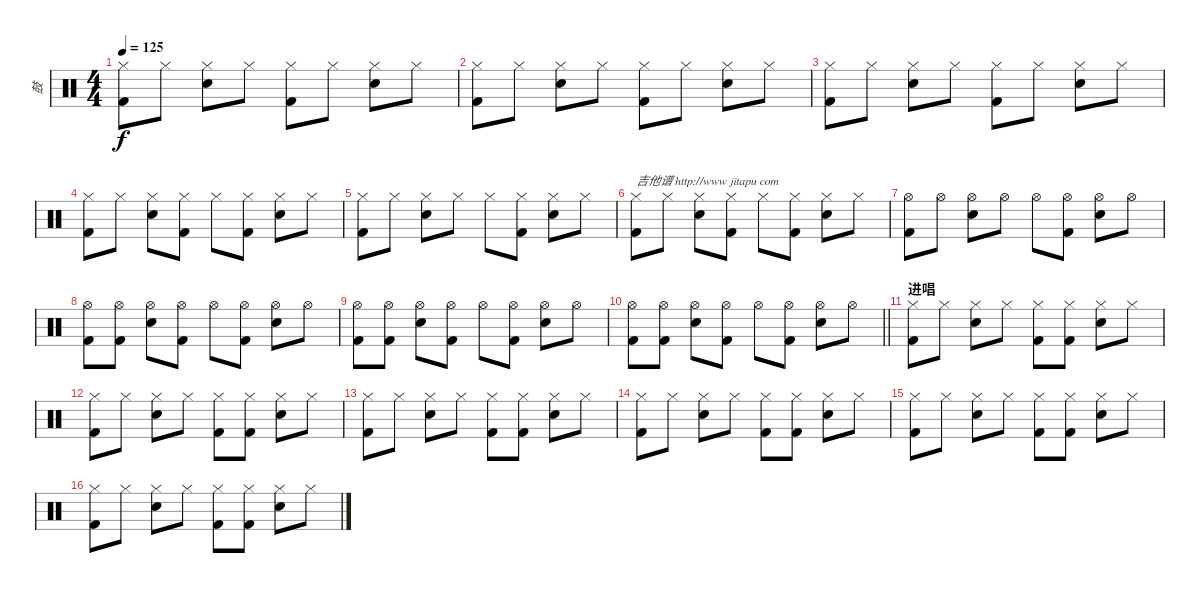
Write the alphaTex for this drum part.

\track ("鼓" "鼓") {instrument percussion}
\staff {score}
\articulation defaults
\ts (4 4)
\tempo 125
\clef neutral
\ks c
("Hi-Hat (closed)" "Kick (hit) 2").8{dy f} "Hi-Hat (closed)".8 ("Hi-Hat (closed)" "Snare (hit) 2").8 "Hi-Hat (closed)".8 ("Hi-Hat (closed)" "Kick (hit) 2").8 "Hi-Hat (closed)".8 ("Hi-Hat (closed)" "Snare (hit) 2").8 "Hi-Hat (closed)".8 |
("Hi-Hat (closed)" "Kick (hit) 2").8 "Hi-Hat (closed)".8 ("Hi-Hat (closed)" "Snare (hit) 2").8 "Hi-Hat (closed)".8 ("Hi-Hat (closed)" "Kick (hit) 2").8 "Hi-Hat (closed)".8 ("Hi-Hat (closed)" "Snare (hit) 2").8 "Hi-Hat (closed)".8 |
("Hi-Hat (closed)" "Kick (hit) 2").8 "Hi-Hat (closed)".8 ("Hi-Hat (closed)" "Snare (hit) 2").8 "Hi-Hat (closed)".8 ("Hi-Hat (closed)" "Kick (hit) 2").8 "Hi-Hat (closed)".8 ("Hi-Hat (closed)" "Snare (hit) 2").8 "Hi-Hat (closed)".8 |
("Hi-Hat (closed)" "Kick (hit) 2").8 "Hi-Hat (closed)".8 ("Hi-Hat (closed)" "Snare (hit) 2").8 ("Hi-Hat (closed)" "Kick (hit) 2").8 "Hi-Hat (closed)".8 ("Hi-Hat (closed)" "Kick (hit) 2").8 ("Hi-Hat (closed)" "Snare (hit) 2").8 "Hi-Hat (closed)".8 |
("Hi-Hat (closed)" "Kick (hit) 2").8 "Hi-Hat (closed)".8 ("Hi-Hat (closed)" "Snare (hit) 2").8 "Hi-Hat (closed)".8 "Hi-Hat (closed)".8 ("Hi-Hat (closed)" "Kick (hit) 2").8 ("Hi-Hat (closed)" "Snare (hit) 2").8 "Hi-Hat (closed)".8 |
("Hi-Hat (closed)" "Kick (hit) 2").8{txt "吉他谱 http://www jitapu com"} "Hi-Hat (closed)".8 ("Hi-Hat (closed)" "Snare (hit) 2").8 ("Hi-Hat (closed)" "Kick (hit) 2").8 "Hi-Hat (closed)".8 ("Hi-Hat (closed)" "Kick (hit) 2").8 ("Hi-Hat (closed)" "Snare (hit) 2").8 "Hi-Hat (closed)".8 |
("Hi-Hat (open)" "Kick (hit) 2").8 "Hi-Hat (open)".8 ("Hi-Hat (open)" "Snare (hit) 2").8 "Hi-Hat (open)".8 "Hi-Hat (open)".8 ("Hi-Hat (open)" "Kick (hit) 2").8 ("Hi-Hat (open)" "Snare (hit) 2").8 "Hi-Hat (open)".8 |
("Hi-Hat (open)" "Kick (hit) 2").8 ("Hi-Hat (open)" "Kick (hit) 2").8 ("Hi-Hat (open)" "Snare (hit) 2").8 ("Hi-Hat (open)" "Kick (hit) 2").8 "Hi-Hat (open)".8 ("Hi-Hat (open)" "Kick (hit) 2").8 ("Hi-Hat (open)" "Snare (hit) 2").8 "Hi-Hat (open)".8 |
("Hi-Hat (open)" "Kick (hit) 2").8 ("Hi-Hat (open)" "Kick (hit) 2").8 ("Hi-Hat (open)" "Snare (hit) 2").8 ("Hi-Hat (open)" "Kick (hit) 2").8 "Hi-Hat (open)".8 ("Hi-Hat (open)" "Kick (hit) 2").8 ("Hi-Hat (open)" "Snare (hit) 2").8 "Hi-Hat (open)".8 |
\barLineRight lightlight
("Hi-Hat (open)" "Kick (hit) 2").8 ("Hi-Hat (open)" "Kick (hit) 2").8 ("Hi-Hat (open)" "Snare (hit) 2").8 ("Hi-Hat (open)" "Kick (hit) 2").8 "Hi-Hat (open)".8 ("Hi-Hat (open)" "Kick (hit) 2").8 ("Hi-Hat (open)" "Snare (hit) 2").8 "Hi-Hat (open)".8 |
\section ("" "进唱")
("Hi-Hat (closed)" "Kick (hit) 2").8 "Hi-Hat (closed)".8 ("Hi-Hat (closed)" "Snare (hit) 2").8 "Hi-Hat (closed)".8 ("Hi-Hat (closed)" "Kick (hit) 2").8 ("Hi-Hat (closed)" "Kick (hit) 2").8 ("Hi-Hat (closed)" "Snare (hit) 2").8 "Hi-Hat (closed)".8 |
("Hi-Hat (closed)" "Kick (hit) 2").8 "Hi-Hat (closed)".8 ("Hi-Hat (closed)" "Snare (hit) 2").8 "Hi-Hat (closed)".8 ("Hi-Hat (closed)" "Kick (hit) 2").8 ("Hi-Hat (closed)" "Kick (hit) 2").8 ("Hi-Hat (closed)" "Snare (hit) 2").8 "Hi-Hat (closed)".8 |
("Hi-Hat (closed)" "Kick (hit) 2").8 "Hi-Hat (closed)".8 ("Hi-Hat (closed)" "Snare (hit) 2").8 "Hi-Hat (closed)".8 ("Hi-Hat (closed)" "Kick (hit) 2").8 ("Hi-Hat (closed)" "Kick (hit) 2").8 ("Hi-Hat (closed)" "Snare (hit) 2").8 "Hi-Hat (closed)".8 |
("Hi-Hat (closed)" "Kick (hit) 2").8 "Hi-Hat (closed)".8 ("Hi-Hat (closed)" "Snare (hit) 2").8 "Hi-Hat (closed)".8 ("Hi-Hat (closed)" "Kick (hit) 2").8 ("Hi-Hat (closed)" "Kick (hit) 2").8 ("Hi-Hat (closed)" "Snare (hit) 2").8 "Hi-Hat (closed)".8 |
("Hi-Hat (closed)" "Kick (hit) 2").8 "Hi-Hat (closed)".8 ("Hi-Hat (closed)" "Snare (hit) 2").8 "Hi-Hat (closed)".8 ("Hi-Hat (closed)" "Kick (hit) 2").8 ("Hi-Hat (closed)" "Kick (hit) 2").8 ("Hi-Hat (closed)" "Snare (hit) 2").8 "Hi-Hat (closed)".8 |
("Hi-Hat (closed)" "Kick (hit) 2").8 "Hi-Hat (closed)".8 ("Hi-Hat (closed)" "Snare (hit) 2").8 "Hi-Hat (closed)".8 ("Hi-Hat (closed)" "Kick (hit) 2").8 ("Hi-Hat (closed)" "Kick (hit) 2").8 ("Hi-Hat (closed)" "Snare (hit) 2").8 "Hi-Hat (closed)".8
